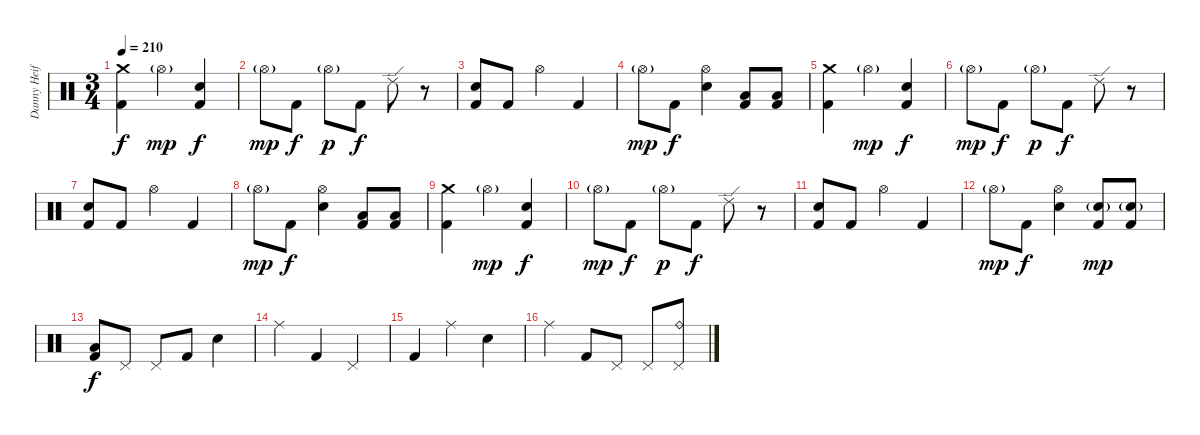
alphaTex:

\track ("Danny Heifetz - Drums" "Danny Heif") {instrument percussion}
\staff {score}
\articulation defaults
\ts (3 4)
\tempo 210
\clef neutral
\ks c
("Crash medium (hit)" "Kick (hit) 2").4{dy f} "Hi-Hat (open)"{g}.4{dy mp} ("Electric Snare (hit)" "Kick (hit) 2").4{dy f} |
"Hi-Hat (open)"{g}.8{dy mp} "Kick (hit) 2".8{dy f} "Hi-Hat (open)"{g}.8{dy p} "Kick (hit) 2".8{dy f} "Ride (edge) 2".8 r.8 |
("Electric Snare (hit)" "Kick (hit) 2").8 "Kick (hit) 2".8 "Hi-Hat (open)".4 "Kick (hit) 2".4 |
"Hi-Hat (open)"{g}.8{dy mp} "Kick (hit) 2".8{dy f} ("Hi-Hat (open)" "Electric Snare (hit)").4 ("Low Floor Tom (hit)" "Kick (hit) 2").8 ("Low Floor Tom (hit)" "Kick (hit) 2").8 |
("Crash medium (hit)" "Kick (hit) 2").4 "Hi-Hat (open)"{g}.4{dy mp} ("Electric Snare (hit)" "Kick (hit) 2").4{dy f} |
"Hi-Hat (open)"{g}.8{dy mp} "Kick (hit) 2".8{dy f} "Hi-Hat (open)"{g}.8{dy p} "Kick (hit) 2".8{dy f} "Ride (edge) 2".8 r.8 |
("Electric Snare (hit)" "Kick (hit) 2").8 "Kick (hit) 2".8 "Hi-Hat (open)".4 "Kick (hit) 2".4 |
"Hi-Hat (open)"{g}.8{dy mp} "Kick (hit) 2".8{dy f} ("Hi-Hat (open)" "Electric Snare (hit)").4 ("Low Floor Tom (hit)" "Kick (hit) 2").8 ("Low Floor Tom (hit)" "Kick (hit) 2").8 |
("Crash medium (hit)" "Kick (hit) 2").4 "Hi-Hat (open)"{g}.4{dy mp} ("Electric Snare (hit)" "Kick (hit) 2").4{dy f} |
"Hi-Hat (open)"{g}.8{dy mp} "Kick (hit) 2".8{dy f} "Hi-Hat (open)"{g}.8{dy p} "Kick (hit) 2".8{dy f} "Ride (edge) 2".8 r.8 |
("Electric Snare (hit)" "Kick (hit) 2").8 "Kick (hit) 2".8 "Hi-Hat (open)".4 "Kick (hit) 2".4 |
"Hi-Hat (open)"{g}.8{dy mp} "Kick (hit) 2".8{dy f} ("Hi-Hat (open)" "Electric Snare (hit)").4 ("Electric Snare (hit)"{g} "Kick (hit) 2").8{dy mp} ("Electric Snare (hit)"{g} "Kick (hit) 2").8 |
("Low Tom (hit)" "Kick (hit) 2").8{dy f} "Pedal Hi-Hat (hit)".8 "Pedal Hi-Hat (hit)".8 "Kick (hit) 2".8 "Electric Snare (hit)".4 |
"Ride (middle)".4 "Kick (hit) 2".4 "Pedal Hi-Hat (hit)".4 |
"Kick (hit) 2".4 "Ride (middle)".4 "Electric Snare (hit)".4 |
"Ride (middle)".4 "Kick (hit) 2".8 "Pedal Hi-Hat (hit)".8 "Pedal Hi-Hat (hit)".8 ("Ride (bell)" "Pedal Hi-Hat (hit)").8
